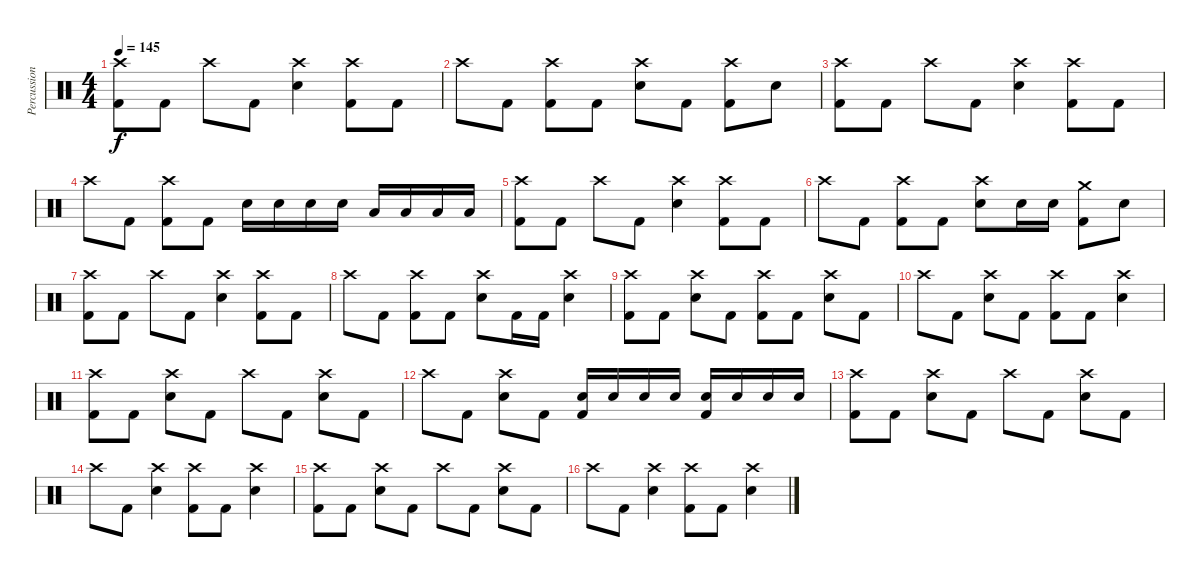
\track ("Percussion" "Percussion") {instrument percussion}
\staff {score}
\articulation defaults
\ts (4 4)
\tempo 145
\clef neutral
\ks c
("Crash high (hit)" "Kick (hit) 2").8{dy f} "Kick (hit) 2".8 "Crash high (hit)".8 "Kick (hit) 2".8 ("Crash high (hit)" "Electric Snare (hit)").4 ("Crash high (hit)" "Kick (hit) 2").8 "Kick (hit) 2".8 |
"Crash high (hit)".8 "Kick (hit) 2".8 ("Crash high (hit)" "Kick (hit) 2").8 "Kick (hit) 2".8 ("Crash high (hit)" "Electric Snare (hit)").8 "Kick (hit) 2".8 ("Crash high (hit)" "Kick (hit) 2").8 "Electric Snare (hit)".8 |
("Crash high (hit)" "Kick (hit) 2").8 "Kick (hit) 2".8 "Crash high (hit)".8 "Kick (hit) 2".8 ("Crash high (hit)" "Electric Snare (hit)").4 ("Crash high (hit)" "Kick (hit) 2").8 "Kick (hit) 2".8 |
"Crash high (hit)".8 "Kick (hit) 2".8 ("Crash high (hit)" "Kick (hit) 2").8 "Kick (hit) 2".8 "Electric Snare (hit)".16 "Electric Snare (hit)".16 "Electric Snare (hit)".16 "Electric Snare (hit)".16 "Low Tom (hit)".16 "Low Tom (hit)".16 "Low Floor Tom (hit)".16 "Low Floor Tom (hit)".16 |
("Crash high (hit)" "Kick (hit) 2").8 "Kick (hit) 2".8 "Crash high (hit)".8 "Kick (hit) 2".8 ("Crash high (hit)" "Electric Snare (hit)").4 ("Crash high (hit)" "Kick (hit) 2").8 "Kick (hit) 2".8 |
"Crash high (hit)".8 "Kick (hit) 2".8 ("Crash high (hit)" "Kick (hit) 2").8 "Kick (hit) 2".8 ("Crash high (hit)" "Electric Snare (hit)").8 "Electric Snare (hit)".16 "Electric Snare (hit)".16 ("Crash medium (hit)" "Kick (hit) 2").8 "Electric Snare (hit)".8 |
("Crash high (hit)" "Kick (hit) 2").8 "Kick (hit) 2".8 "Crash high (hit)".8 "Kick (hit) 2".8 ("Crash high (hit)" "Electric Snare (hit)").4 ("Crash high (hit)" "Kick (hit) 2").8 "Kick (hit) 2".8 |
"Crash high (hit)".8 "Kick (hit) 2".8 ("Crash high (hit)" "Kick (hit) 2").8 "Kick (hit) 2".8 ("Crash high (hit)" "Electric Snare (hit)").8 "Kick (hit) 2".16 "Kick (hit) 2".16 ("Crash high (hit)" "Electric Snare (hit)").4 |
("Crash high (hit)" "Kick (hit) 2").8 "Kick (hit) 2".8 ("Crash high (hit)" "Electric Snare (hit)").8 "Kick (hit) 2".8 ("Crash high (hit)" "Kick (hit) 2").8 "Kick (hit) 2".8 ("Crash high (hit)" "Electric Snare (hit)").8 "Kick (hit) 2".8 |
"Crash high (hit)".8 "Kick (hit) 2".8 ("Crash high (hit)" "Electric Snare (hit)").8 "Kick (hit) 2".8 ("Crash high (hit)" "Kick (hit) 2").8 "Kick (hit) 2".8 ("Crash high (hit)" "Electric Snare (hit)").4 |
("Crash high (hit)" "Kick (hit) 2").8 "Kick (hit) 2".8 ("Crash high (hit)" "Electric Snare (hit)").8 "Kick (hit) 2".8 "Crash high (hit)".8 "Kick (hit) 2".8 ("Crash high (hit)" "Electric Snare (hit)").8 "Kick (hit) 2".8 |
"Crash high (hit)".8 "Kick (hit) 2".8 ("Crash high (hit)" "Electric Snare (hit)").8 "Kick (hit) 2".8 ("Electric Snare (hit)" "Kick (hit) 2").16 "Electric Snare (hit)".16 "Electric Snare (hit)".16 "Electric Snare (hit)".16 ("Electric Snare (hit)" "Kick (hit) 2").16 "Electric Snare (hit)".16 "Electric Snare (hit)".16 "Electric Snare (hit)".16 |
("Crash high (hit)" "Kick (hit) 2").8 "Kick (hit) 2".8 ("Crash high (hit)" "Electric Snare (hit)").8 "Kick (hit) 2".8 "Crash high (hit)".8 "Kick (hit) 2".8 ("Crash high (hit)" "Electric Snare (hit)").8 "Kick (hit) 2".8 |
"Crash high (hit)".8 "Kick (hit) 2".8 ("Crash high (hit)" "Electric Snare (hit)").4 ("Crash high (hit)" "Kick (hit) 2").8 "Kick (hit) 2".8 ("Crash high (hit)" "Electric Snare (hit)").4 |
("Crash high (hit)" "Kick (hit) 2").8 "Kick (hit) 2".8 ("Crash high (hit)" "Electric Snare (hit)").8 "Kick (hit) 2".8 "Crash high (hit)".8 "Kick (hit) 2".8 ("Crash high (hit)" "Electric Snare (hit)").8 "Kick (hit) 2".8 |
"Crash high (hit)".8 "Kick (hit) 2".8 ("Crash high (hit)" "Electric Snare (hit)").4 ("Crash high (hit)" "Kick (hit) 2").8 "Kick (hit) 2".8 ("Crash high (hit)" "Electric Snare (hit)").4
